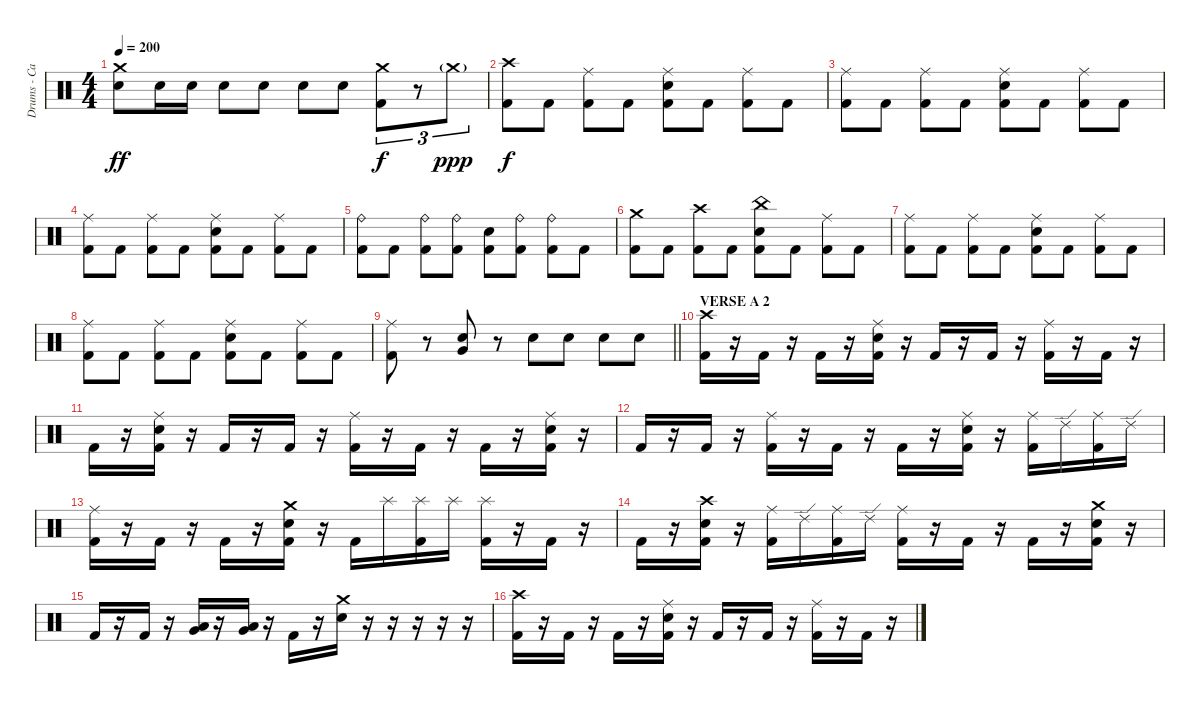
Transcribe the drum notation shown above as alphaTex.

\track ("Drums - Carlos Cruz" "Drums - Ca") {instrument percussion}
\staff {score}
\articulation defaults
\ts (4 4)
\tempo 200
\clef neutral
\ks c
("Crash medium (hit)" "Snare (hit) 2").8{dy ff} "Snare (hit) 2".16 "Snare (hit) 2".16 "Snare (hit) 2".8 "Snare (hit) 2".8 "Snare (hit) 2".8 "Snare (hit) 2".8 ("Crash medium (hit)" "Kick (hit) 2").8{tu (3 2) dy f} r.8{tu (3 2)} "Crash medium (hit)"{g}.8{tu (3 2) dy ppp} |
("Crash high (hit)" "Kick (hit) 2").8{dy f} "Kick (hit) 2".8 ("Ride (middle)" "Kick (hit) 2").8 "Kick (hit) 2".8 ("Ride (middle)" "Snare (hit) 2" "Kick (hit) 2").8 "Kick (hit) 2".8 ("Ride (middle)" "Kick (hit) 2").8 "Kick (hit) 2".8 |
("Ride (middle)" "Kick (hit) 2").8 "Kick (hit) 2".8 ("Ride (middle)" "Kick (hit) 2").8 "Kick (hit) 2".8 ("Ride (middle)" "Snare (hit) 2" "Kick (hit) 2").8 "Kick (hit) 2".8 ("Ride (middle)" "Kick (hit) 2").8 "Kick (hit) 2".8 |
("Ride (middle)" "Kick (hit) 2").8 "Kick (hit) 2".8 ("Ride (middle)" "Kick (hit) 2").8 "Kick (hit) 2".8 ("Ride (middle)" "Snare (hit) 2" "Kick (hit) 2").8 "Kick (hit) 2".8 ("Ride (middle)" "Kick (hit) 2").8 "Kick (hit) 2".8 |
("Ride (bell)" "Kick (hit) 2").8 "Kick (hit) 2".8 ("Ride (bell)" "Kick (hit) 2").8 ("Ride (bell)" "Kick (hit) 2").8 ("Snare (hit) 2" "Kick (hit) 2").8 ("Ride (bell)" "Kick (hit) 2").8 ("Ride (bell)" "Kick (hit) 2").8 "Kick (hit) 2".8 |
("Crash medium (hit)" "Kick (hit) 2").8 "Kick (hit) 2".8 ("Crash high (hit)" "Kick (hit) 2").8 "Kick (hit) 2".8 ("China (hit)" "Snare (hit) 2" "Kick (hit) 2").8 "Kick (hit) 2".8 ("Ride (middle)" "Kick (hit) 2").8 "Kick (hit) 2".8 |
("Ride (middle)" "Kick (hit) 2").8 "Kick (hit) 2".8 ("Ride (middle)" "Kick (hit) 2").8 "Kick (hit) 2".8 ("Ride (middle)" "Snare (hit) 2" "Kick (hit) 2").8 "Kick (hit) 2".8 ("Ride (middle)" "Kick (hit) 2").8 "Kick (hit) 2".8 |
("Ride (middle)" "Kick (hit) 2").8 "Kick (hit) 2".8 ("Ride (middle)" "Kick (hit) 2").8 "Kick (hit) 2".8 ("Ride (middle)" "Snare (hit) 2" "Kick (hit) 2").8 "Kick (hit) 2".8 ("Ride (middle)" "Kick (hit) 2").8 "Kick (hit) 2".8 |
\barLineRight lightlight
("Ride (middle)" "Kick (hit) 2").8 r.8 ("Snare (hit) 2" "Very Low Tom (hit)").8 r.8 "Snare (hit) 2".8 "Snare (hit) 2".8 "Snare (hit) 2".8 "Snare (hit) 2".8 |
\section ("" "VERSE A 2")
("Crash high (hit)" "Kick (hit) 2").16 r.16 "Kick (hit) 2".16 r.16 "Kick (hit) 2".16 r.16 ("Ride (middle)" "Snare (hit) 2" "Kick (hit) 2").16 r.16 "Kick (hit) 2".16 r.16 "Kick (hit) 2".16 r.16 ("Ride (middle)" "Kick (hit) 2").16 r.16 "Kick (hit) 2".16 r.16 |
"Kick (hit) 2".16 r.16 ("Ride (middle)" "Snare (hit) 2" "Kick (hit) 2").16 r.16 "Kick (hit) 2".16 r.16 "Kick (hit) 2".16 r.16 ("Ride (middle)" "Kick (hit) 2").16 r.16 "Kick (hit) 2".16 r.16 "Kick (hit) 2".16 r.16 ("Ride (middle)" "Snare (hit) 2" "Kick (hit) 2").16 r.16 |
"Kick (hit) 2".16 r.16 "Kick (hit) 2".16 r.16 ("Ride (middle)" "Kick (hit) 2").16 r.16 "Kick (hit) 2".16 r.16 "Kick (hit) 2".16 r.16 ("Ride (middle)" "Snare (hit) 2" "Kick (hit) 2").16 r.16 ("Ride (middle)" "Kick (hit) 2").16 "Ride (edge) 2".16 ("Ride (middle)" "Kick (hit) 2").16 "Ride (edge) 2".16 |
("Ride (middle)" "Kick (hit) 2").16 r.16 "Kick (hit) 2".16 r.16 "Kick (hit) 2".16 r.16 ("Crash medium (hit)" "Snare (hit) 2" "Kick (hit) 2").16 r.16 "Kick (hit) 2".16 "Splash (hit)".16 ("Splash (hit)" "Kick (hit) 2").16 "Splash (hit)".16 ("Splash (hit)" "Kick (hit) 2").16 r.16 "Kick (hit) 2".16 r.16 |
"Kick (hit) 2".16 r.16 ("Crash high (hit)" "Snare (hit) 2" "Kick (hit) 2").16 r.16 ("Ride (middle)" "Kick (hit) 2").16 "Ride (edge) 2".16 ("Ride (middle)" "Kick (hit) 2").16 "Ride (edge) 2".16 ("Ride (middle)" "Kick (hit) 2").16 r.16 "Kick (hit) 2".16 r.16 "Kick (hit) 2".16 r.16 ("Crash medium (hit)" "Snare (hit) 2" "Kick (hit) 2").16 r.16 |
"Kick (hit) 2".16 r.16 "Kick (hit) 2".16 r.16 ("Low Tom (hit)" "Very Low Tom (hit)").16 r.16 ("Low Tom (hit)" "Very Low Tom (hit)").16 r.16 "Kick (hit) 2".16 r.16 ("Crash medium (hit)" "Snare (hit) 2").16 r.16 r.16 r.16 r.16 r.16 |
("Crash high (hit)" "Kick (hit) 2").16 r.16 "Kick (hit) 2".16 r.16 "Kick (hit) 2".16 r.16 ("Ride (middle)" "Snare (hit) 2" "Kick (hit) 2").16 r.16 "Kick (hit) 2".16 r.16 "Kick (hit) 2".16 r.16 ("Ride (middle)" "Kick (hit) 2").16 r.16 "Kick (hit) 2".16 r.16
